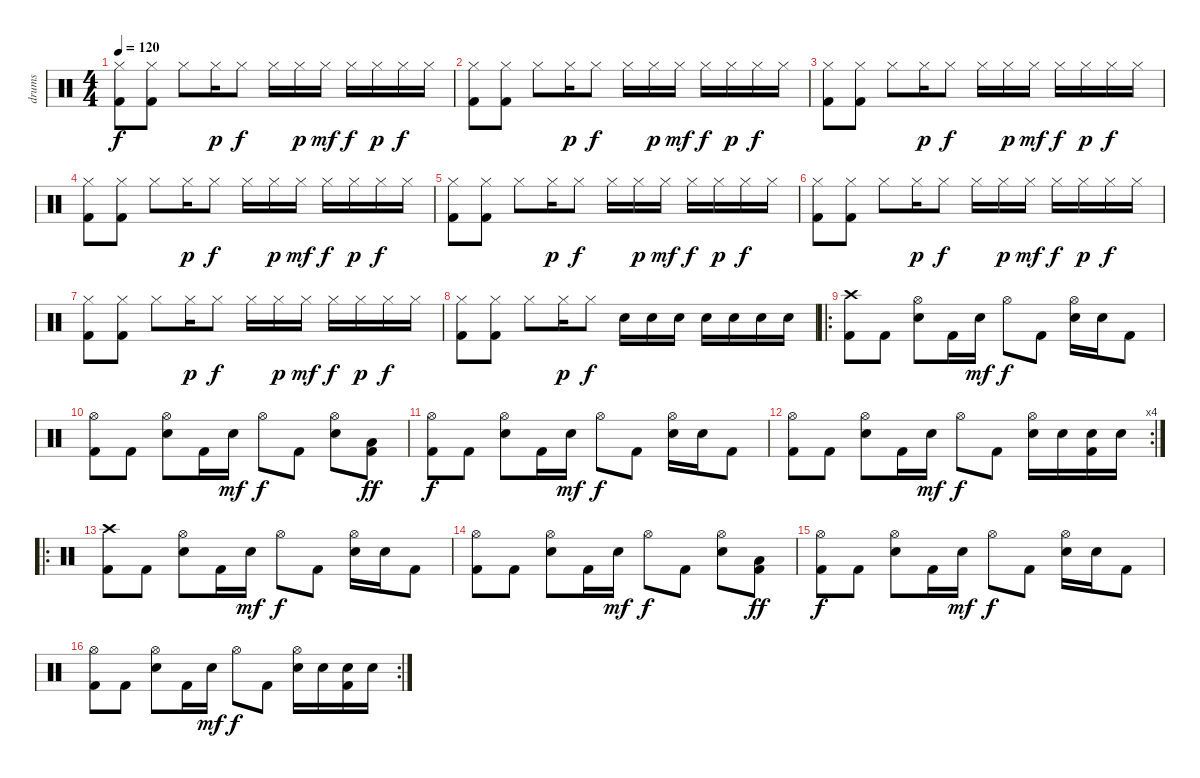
\track ("drums" "drums") {instrument percussion}
\staff {score}
\articulation defaults
\ts (4 4)
\tempo 120
\clef neutral
\ks c
("Hi-Hat (closed)" "Kick (hit) 2").8{dy f} ("Hi-Hat (closed)" "Kick (hit) 2").8 "Hi-Hat (closed)".8 "Hi-Hat (closed)".16{dy p} "Hi-Hat (closed)".8{dy f} "Hi-Hat (closed)".16 "Hi-Hat (closed)".16{dy p} "Hi-Hat (closed)".16{dy mf} "Hi-Hat (closed)".16{dy f} "Hi-Hat (closed)".16{dy p} "Hi-Hat (closed)".16{dy f} "Hi-Hat (closed)".16 |
("Hi-Hat (closed)" "Kick (hit) 2").8 ("Hi-Hat (closed)" "Kick (hit) 2").8 "Hi-Hat (closed)".8 "Hi-Hat (closed)".16{dy p} "Hi-Hat (closed)".8{dy f} "Hi-Hat (closed)".16 "Hi-Hat (closed)".16{dy p} "Hi-Hat (closed)".16{dy mf} "Hi-Hat (closed)".16{dy f} "Hi-Hat (closed)".16{dy p} "Hi-Hat (closed)".16{dy f} "Hi-Hat (closed)".16 |
("Hi-Hat (closed)" "Kick (hit) 2").8 ("Hi-Hat (closed)" "Kick (hit) 2").8 "Hi-Hat (closed)".8 "Hi-Hat (closed)".16{dy p} "Hi-Hat (closed)".8{dy f} "Hi-Hat (closed)".16 "Hi-Hat (closed)".16{dy p} "Hi-Hat (closed)".16{dy mf} "Hi-Hat (closed)".16{dy f} "Hi-Hat (closed)".16{dy p} "Hi-Hat (closed)".16{dy f} "Hi-Hat (closed)".16 |
("Hi-Hat (closed)" "Kick (hit) 2").8 ("Hi-Hat (closed)" "Kick (hit) 2").8 "Hi-Hat (closed)".8 "Hi-Hat (closed)".16{dy p} "Hi-Hat (closed)".8{dy f} "Hi-Hat (closed)".16 "Hi-Hat (closed)".16{dy p} "Hi-Hat (closed)".16{dy mf} "Hi-Hat (closed)".16{dy f} "Hi-Hat (closed)".16{dy p} "Hi-Hat (closed)".16{dy f} "Hi-Hat (closed)".16 |
("Hi-Hat (closed)" "Kick (hit) 2").8 ("Hi-Hat (closed)" "Kick (hit) 2").8 "Hi-Hat (closed)".8 "Hi-Hat (closed)".16{dy p} "Hi-Hat (closed)".8{dy f} "Hi-Hat (closed)".16 "Hi-Hat (closed)".16{dy p} "Hi-Hat (closed)".16{dy mf} "Hi-Hat (closed)".16{dy f} "Hi-Hat (closed)".16{dy p} "Hi-Hat (closed)".16{dy f} "Hi-Hat (closed)".16 |
("Hi-Hat (closed)" "Kick (hit) 2").8 ("Hi-Hat (closed)" "Kick (hit) 2").8 "Hi-Hat (closed)".8 "Hi-Hat (closed)".16{dy p} "Hi-Hat (closed)".8{dy f} "Hi-Hat (closed)".16 "Hi-Hat (closed)".16{dy p} "Hi-Hat (closed)".16{dy mf} "Hi-Hat (closed)".16{dy f} "Hi-Hat (closed)".16{dy p} "Hi-Hat (closed)".16{dy f} "Hi-Hat (closed)".16 |
("Hi-Hat (closed)" "Kick (hit) 2").8 ("Hi-Hat (closed)" "Kick (hit) 2").8 "Hi-Hat (closed)".8 "Hi-Hat (closed)".16{dy p} "Hi-Hat (closed)".8{dy f} "Hi-Hat (closed)".16 "Hi-Hat (closed)".16{dy p} "Hi-Hat (closed)".16{dy mf} "Hi-Hat (closed)".16{dy f} "Hi-Hat (closed)".16{dy p} "Hi-Hat (closed)".16{dy f} "Hi-Hat (closed)".16 |
("Hi-Hat (closed)" "Kick (hit) 2").8 ("Hi-Hat (closed)" "Kick (hit) 2").8 "Hi-Hat (closed)".8 "Hi-Hat (closed)".16{dy p} "Hi-Hat (closed)".8{dy f} "Electric Snare (hit)".16 "Electric Snare (hit)".16 "Electric Snare (hit)".16 "Electric Snare (hit)".16 "Electric Snare (hit)".16 "Electric Snare (hit)".16 "Electric Snare (hit)".16 |
\ro
("Crash high (hit)" "Kick (hit) 2").8 "Kick (hit) 2".8 ("Hi-Hat (open)" "Electric Snare (hit)").8 "Kick (hit) 2".16 "Electric Snare (hit)".16{dy mf} "Hi-Hat (open)".8{dy f} "Kick (hit) 2".8 ("Hi-Hat (open)" "Electric Snare (hit)").16 "Electric Snare (hit)".16 "Kick (hit) 2".8 |
("Hi-Hat (open)" "Kick (hit) 2").8 "Kick (hit) 2".8 ("Hi-Hat (open)" "Electric Snare (hit)").8 "Kick (hit) 2".16 "Electric Snare (hit)".16{dy mf} "Hi-Hat (open)".8{dy f} "Kick (hit) 2".8 ("Hi-Hat (open)" "Electric Snare (hit)").8 ("Low Floor Tom (hit)" "Kick (hit) 2").8{dy ff} |
("Hi-Hat (open)" "Kick (hit) 2").8{dy f} "Kick (hit) 2".8 ("Hi-Hat (open)" "Electric Snare (hit)").8 "Kick (hit) 2".16 "Electric Snare (hit)".16{dy mf} "Hi-Hat (open)".8{dy f} "Kick (hit) 2".8 ("Hi-Hat (open)" "Electric Snare (hit)").16 "Electric Snare (hit)".16 "Kick (hit) 2".8 |
\rc 4
("Hi-Hat (open)" "Kick (hit) 2").8 "Kick (hit) 2".8 ("Hi-Hat (open)" "Electric Snare (hit)").8 "Kick (hit) 2".16 "Electric Snare (hit)".16{dy mf} "Hi-Hat (open)".8{dy f} "Kick (hit) 2".8 ("Hi-Hat (open)" "Electric Snare (hit)").16 "Electric Snare (hit)".16 ("Electric Snare (hit)" "Kick (hit) 2").16 "Electric Snare (hit)".16 |
\ro
("Crash high (hit)" "Kick (hit) 2").8 "Kick (hit) 2".8 ("Hi-Hat (open)" "Electric Snare (hit)").8 "Kick (hit) 2".16 "Electric Snare (hit)".16{dy mf} "Hi-Hat (open)".8{dy f} "Kick (hit) 2".8 ("Hi-Hat (open)" "Electric Snare (hit)").16 "Electric Snare (hit)".16 "Kick (hit) 2".8 |
("Hi-Hat (open)" "Kick (hit) 2").8 "Kick (hit) 2".8 ("Hi-Hat (open)" "Electric Snare (hit)").8 "Kick (hit) 2".16 "Electric Snare (hit)".16{dy mf} "Hi-Hat (open)".8{dy f} "Kick (hit) 2".8 ("Hi-Hat (open)" "Electric Snare (hit)").8 ("Low Floor Tom (hit)" "Kick (hit) 2").8{dy ff} |
("Hi-Hat (open)" "Kick (hit) 2").8{dy f} "Kick (hit) 2".8 ("Hi-Hat (open)" "Electric Snare (hit)").8 "Kick (hit) 2".16 "Electric Snare (hit)".16{dy mf} "Hi-Hat (open)".8{dy f} "Kick (hit) 2".8 ("Hi-Hat (open)" "Electric Snare (hit)").16 "Electric Snare (hit)".16 "Kick (hit) 2".8 |
\rc 2
("Hi-Hat (open)" "Kick (hit) 2").8 "Kick (hit) 2".8 ("Hi-Hat (open)" "Electric Snare (hit)").8 "Kick (hit) 2".16 "Electric Snare (hit)".16{dy mf} "Hi-Hat (open)".8{dy f} "Kick (hit) 2".8 ("Hi-Hat (open)" "Electric Snare (hit)").16 "Electric Snare (hit)".16 ("Electric Snare (hit)" "Kick (hit) 2").16 "Electric Snare (hit)".16
